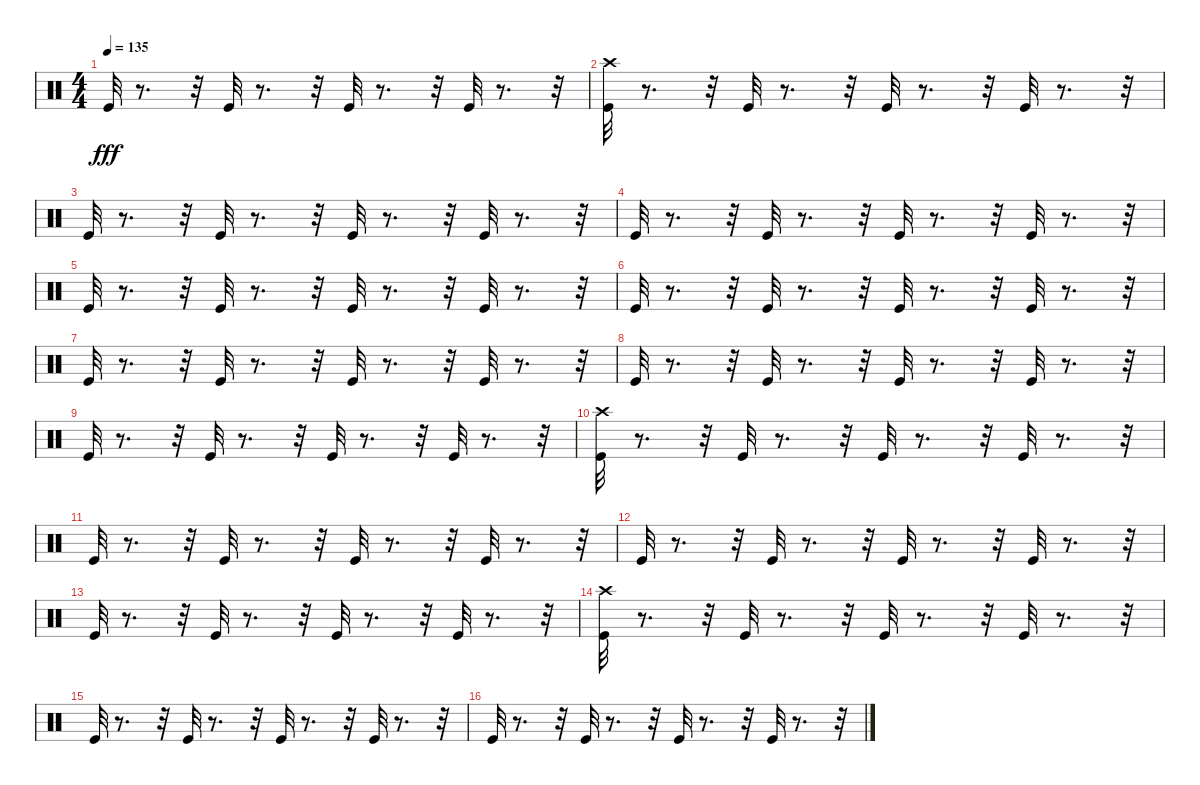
\track "" {instrument percussion}
\staff {score}
\articulation defaults
\ts (4 4)
\tempo 135
\clef neutral
\ks c "Kick (hit)".32{dy fff}
r.8{d} r.32 "Kick (hit)".32 r.8{d} r.32 "Kick (hit)".32 r.8{d} r.32 "Kick (hit)".32 r.8{d} r.32 |
("Kick (hit)" "Crash high (hit)").32 r.8{d} r.32 "Kick (hit)".32 r.8{d} r.32 "Kick (hit)".32 r.8{d} r.32 "Kick (hit)".32 r.8{d} r.32 |
"Kick (hit)".32 r.8{d} r.32 "Kick (hit)".32 r.8{d} r.32 "Kick (hit)".32 r.8{d} r.32 "Kick (hit)".32 r.8{d} r.32 |
"Kick (hit)".32 r.8{d} r.32 "Kick (hit)".32 r.8{d} r.32 "Kick (hit)".32 r.8{d} r.32 "Kick (hit)".32 r.8{d} r.32 |
"Kick (hit)".32 r.8{d} r.32 "Kick (hit)".32 r.8{d} r.32 "Kick (hit)".32 r.8{d} r.32 "Kick (hit)".32 r.8{d} r.32 |
"Kick (hit)".32 r.8{d} r.32 "Kick (hit)".32 r.8{d} r.32 "Kick (hit)".32 r.8{d} r.32 "Kick (hit)".32 r.8{d} r.32 |
"Kick (hit)".32 r.8{d} r.32 "Kick (hit)".32 r.8{d} r.32 "Kick (hit)".32 r.8{d} r.32 "Kick (hit)".32 r.8{d} r.32 |
"Kick (hit)".32 r.8{d} r.32 "Kick (hit)".32 r.8{d} r.32 "Kick (hit)".32 r.8{d} r.32 "Kick (hit)".32 r.8{d} r.32 |
"Kick (hit)".32 r.8{d} r.32 "Kick (hit)".32 r.8{d} r.32 "Kick (hit)".32 r.8{d} r.32 "Kick (hit)".32 r.8{d} r.32 |
("Kick (hit)" "Crash high (hit)").32 r.8{d} r.32 "Kick (hit)".32 r.8{d} r.32 "Kick (hit)".32 r.8{d} r.32 "Kick (hit)".32 r.8{d} r.32 |
"Kick (hit)".32 r.8{d} r.32 "Kick (hit)".32 r.8{d} r.32 "Kick (hit)".32 r.8{d} r.32 "Kick (hit)".32 r.8{d} r.32 |
"Kick (hit)".32 r.8{d} r.32 "Kick (hit)".32 r.8{d} r.32 "Kick (hit)".32 r.8{d} r.32 "Kick (hit)".32 r.8{d} r.32 |
"Kick (hit)".32 r.8{d} r.32 "Kick (hit)".32 r.8{d} r.32 "Kick (hit)".32 r.8{d} r.32 "Kick (hit)".32 r.8{d} r.32 |
("Kick (hit)" "Crash high (hit)").32 r.8{d} r.32 "Kick (hit)".32 r.8{d} r.32 "Kick (hit)".32 r.8{d} r.32 "Kick (hit)".32 r.8{d} r.32 |
"Kick (hit)".32 r.8{d} r.32 "Kick (hit)".32 r.8{d} r.32 "Kick (hit)".32 r.8{d} r.32 "Kick (hit)".32 r.8{d} r.32 |
"Kick (hit)".32 r.8{d} r.32 "Kick (hit)".32 r.8{d} r.32 "Kick (hit)".32 r.8{d} r.32 "Kick (hit)".32 r.8{d} r.32
